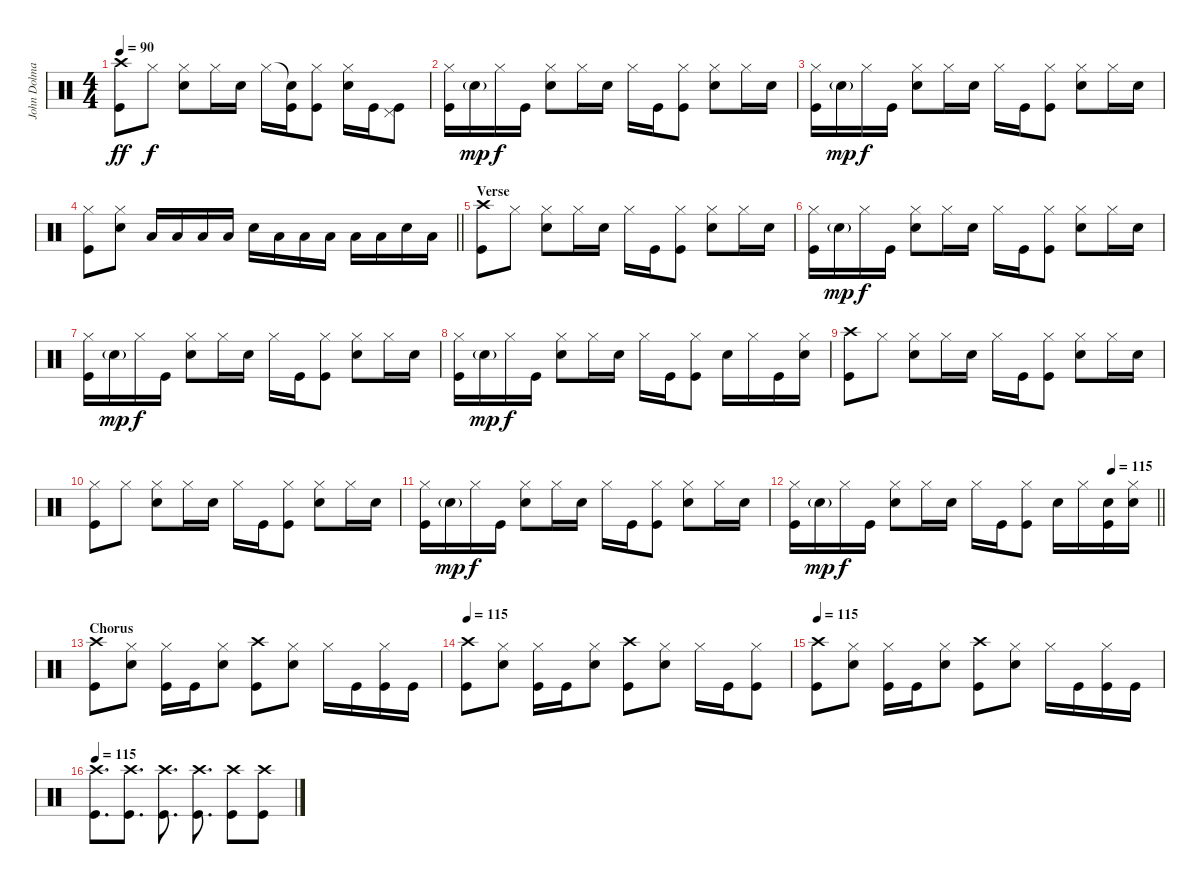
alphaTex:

\track ("John Dolmayan " "John Dolma") {instrument percussion}
\staff {score}
\articulation defaults
\ts (4 4)
\tempo 90
\clef neutral
\ks c
("Crash high (hit)" "Kick (hit)").8{dy ff} "Hi-Hat (closed)".8{dy f} ("Hi-Hat (closed)" "Snare (hit) 2").8 "Hi-Hat (closed)".16 "Snare (hit) 2".16 "Hi-Hat (closed)".16 ("Snare (hit)"{t} "Kick (hit)").16 ("Hi-Hat (closed)" "Kick (hit)").8 ("Hi-Hat (closed)" "Snare (hit) 2").16 "Kick (hit)".16 ("Pedal Hi-Hat (hit)" "Kick (hit)").8 |
("Hi-Hat (closed)" "Kick (hit)").16 "Snare (hit) 2"{g}.16{dy mp} "Hi-Hat (closed)".16{dy f} "Kick (hit)".16 ("Hi-Hat (closed)" "Snare (hit) 2").8 "Hi-Hat (closed)".16 "Snare (hit) 2".16 "Hi-Hat (closed)".16 "Kick (hit)".16 ("Hi-Hat (closed)" "Kick (hit)").8 ("Hi-Hat (closed)" "Snare (hit) 2").8 "Hi-Hat (closed)".16 "Snare (hit) 2".16 |
("Hi-Hat (closed)" "Kick (hit)").16 "Snare (hit) 2"{g}.16{dy mp} "Hi-Hat (closed)".16{dy f} "Kick (hit)".16 ("Hi-Hat (closed)" "Snare (hit) 2").8 "Hi-Hat (closed)".16 "Snare (hit) 2".16 "Hi-Hat (closed)".16 "Kick (hit)".16 ("Hi-Hat (closed)" "Kick (hit)").8 ("Hi-Hat (closed)" "Snare (hit) 2").8 "Hi-Hat (closed)".16 "Snare (hit) 2".16 |
\barLineRight lightlight
("Hi-Hat (closed)" "Kick (hit)").8 ("Hi-Hat (closed)" "Snare (hit) 2").8 "Low Tom (hit)".16 "Low Tom (hit)".16 "Low Tom (hit)".16 "Low Tom (hit)".16 "Snare (hit) 2".16 "Low Tom (hit)".16 "Low Tom (hit)".16 "Low Tom (hit)".16 "Low Tom (hit)".16 "Low Tom (hit)".16 "Snare (hit) 2".16 "Low Tom (hit)".16 |
\section ("" "Verse")
("Crash high (hit)" "Kick (hit)").8 "Hi-Hat (closed)".8 ("Hi-Hat (closed)" "Snare (hit) 2").8 "Hi-Hat (closed)".16 "Snare (hit) 2".16 "Hi-Hat (closed)".16 "Kick (hit)".16 ("Hi-Hat (closed)" "Kick (hit)").8 ("Hi-Hat (closed)" "Snare (hit) 2").8 "Hi-Hat (closed)".16 "Snare (hit) 2".16 |
("Hi-Hat (closed)" "Kick (hit)").16 "Snare (hit) 2"{g}.16{dy mp} "Hi-Hat (closed)".16{dy f} "Kick (hit)".16 ("Hi-Hat (closed)" "Snare (hit) 2").8 "Hi-Hat (closed)".16 "Snare (hit) 2".16 "Hi-Hat (closed)".16 "Kick (hit)".16 ("Hi-Hat (closed)" "Kick (hit)").8 ("Hi-Hat (closed)" "Snare (hit) 2").8 "Hi-Hat (closed)".16 "Snare (hit) 2".16 |
("Hi-Hat (closed)" "Kick (hit)").16 "Snare (hit) 2"{g}.16{dy mp} "Hi-Hat (closed)".16{dy f} "Kick (hit)".16 ("Hi-Hat (closed)" "Snare (hit) 2").8 "Hi-Hat (closed)".16 "Snare (hit) 2".16 "Hi-Hat (closed)".16 "Kick (hit)".16 ("Hi-Hat (closed)" "Kick (hit)").8 ("Hi-Hat (closed)" "Snare (hit) 2").8 "Hi-Hat (closed)".16 "Snare (hit) 2".16 |
("Hi-Hat (closed)" "Kick (hit)").16 "Snare (hit) 2"{g}.16{dy mp} "Hi-Hat (closed)".16{dy f} "Kick (hit)".16 ("Hi-Hat (closed)" "Snare (hit) 2").8 "Hi-Hat (closed)".16 "Snare (hit) 2".16 "Hi-Hat (closed)".16 "Kick (hit)".16 ("Hi-Hat (closed)" "Kick (hit)").8 "Snare (hit) 2".16 "Hi-Hat (closed)".16 "Kick (hit)".16 ("Hi-Hat (closed)" "Snare (hit) 2").16 |
("Crash high (hit)" "Kick (hit)").8 "Hi-Hat (closed)".8 ("Hi-Hat (closed)" "Snare (hit) 2").8 "Hi-Hat (closed)".16 "Snare (hit) 2".16 "Hi-Hat (closed)".16 "Kick (hit)".16 ("Hi-Hat (closed)" "Kick (hit)").8 ("Hi-Hat (closed)" "Snare (hit) 2").8 "Hi-Hat (closed)".16 "Snare (hit) 2".16 |
("Hi-Hat (closed)" "Kick (hit)").8 "Hi-Hat (closed)".8 ("Hi-Hat (closed)" "Snare (hit) 2").8 "Hi-Hat (closed)".16 "Snare (hit) 2".16 "Hi-Hat (closed)".16 "Kick (hit)".16 ("Hi-Hat (closed)" "Kick (hit)").8 ("Hi-Hat (closed)" "Snare (hit) 2").8 "Hi-Hat (closed)".16 "Snare (hit) 2".16 |
("Hi-Hat (closed)" "Kick (hit)").16 "Snare (hit) 2"{g}.16{dy mp} "Hi-Hat (closed)".16{dy f} "Kick (hit)".16 ("Hi-Hat (closed)" "Snare (hit) 2").8 "Hi-Hat (closed)".16 "Snare (hit) 2".16 "Hi-Hat (closed)".16 "Kick (hit)".16 ("Hi-Hat (closed)" "Kick (hit)").8 ("Hi-Hat (closed)" "Snare (hit) 2").8 "Hi-Hat (closed)".16 "Snare (hit) 2".16 |
\tempo (115 0.875)
\barLineRight lightlight
("Hi-Hat (closed)" "Kick (hit)").16 "Snare (hit) 2"{g}.16{dy mp} "Hi-Hat (closed)".16{dy f} "Kick (hit)".16 ("Hi-Hat (closed)" "Snare (hit) 2").8 "Hi-Hat (closed)".16 "Snare (hit) 2".16 "Hi-Hat (closed)".16 "Kick (hit)".16 ("Hi-Hat (closed)" "Kick (hit)").8 "Snare (hit) 2".16 "Hi-Hat (closed)".16 ("Snare (hit) 2" "Kick (hit)").16 ("Hi-Hat (closed)" "Snare (hit) 2").16 |
\section ("" "Chorus")
("Crash high (hit)" "Kick (hit)").8 ("Hi-Hat (closed)" "Snare (hit) 2").8 ("Hi-Hat (closed)" "Kick (hit)").16 "Kick (hit)".16 ("Hi-Hat (closed)" "Snare (hit) 2").8 ("Crash high (hit)" "Kick (hit)").8 ("Hi-Hat (closed)" "Snare (hit) 2").8 "Hi-Hat (closed)".16 "Kick (hit)".16 ("Hi-Hat (closed)" "Kick (hit)").16 "Kick (hit)".16 |
\tempo 115
("Crash high (hit)" "Kick (hit)").8 ("Hi-Hat (closed)" "Snare (hit) 2").8 ("Hi-Hat (closed)" "Kick (hit)").16 "Kick (hit)".16 ("Hi-Hat (closed)" "Snare (hit) 2").8 ("Crash high (hit)" "Kick (hit)").8 ("Hi-Hat (closed)" "Snare (hit) 2").8 "Hi-Hat (closed)".16 "Kick (hit)".16 ("Hi-Hat (closed)" "Kick (hit)").8 |
\tempo 115
("Crash high (hit)" "Kick (hit)").8 ("Hi-Hat (closed)" "Snare (hit) 2").8 ("Hi-Hat (closed)" "Kick (hit)").16 "Kick (hit)".16 ("Hi-Hat (closed)" "Snare (hit) 2").8 ("Crash high (hit)" "Kick (hit)").8 ("Hi-Hat (closed)" "Snare (hit) 2").8 "Hi-Hat (closed)".16 "Kick (hit)".16 ("Hi-Hat (closed)" "Kick (hit)").16 "Kick (hit)".16 |
\tempo 115
("Crash high (hit)" "Kick (hit)").8{d} ("Crash high (hit)" "Kick (hit)").8{d} ("Crash high (hit)" "Kick (hit)").8{d} ("Crash high (hit)" "Kick (hit)").8{d} ("Crash high (hit)" "Kick (hit)").8 ("Crash high (hit)" "Kick (hit)").8
